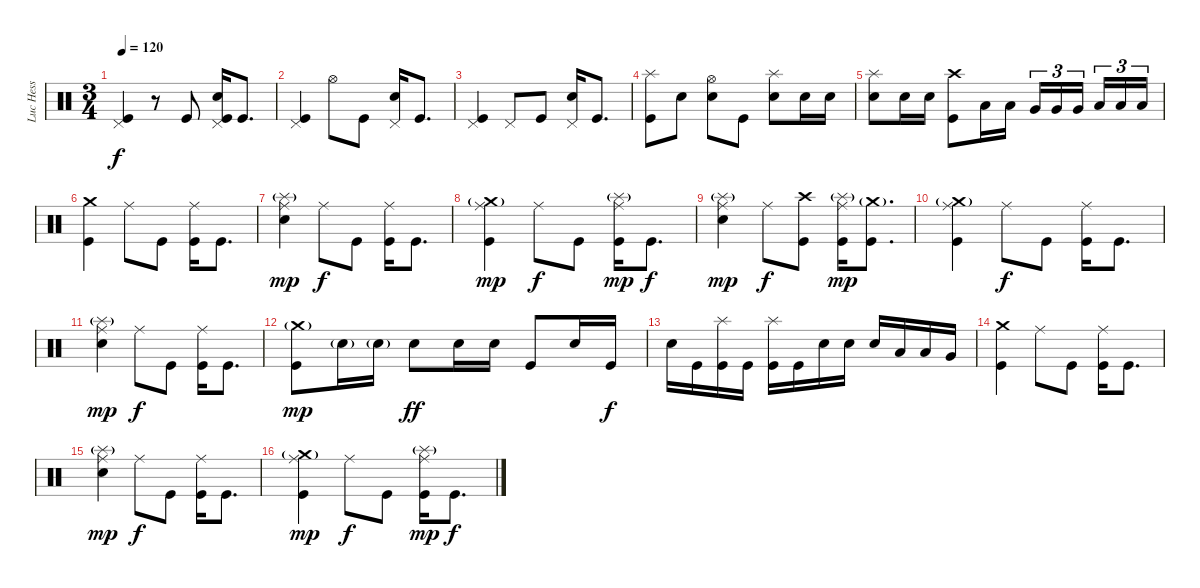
\track ("Luc Hess" "Luc Hess") {instrument percussion}
\staff {score}
\articulation defaults
\ts (3 4)
\tempo 120
\clef neutral
\ks c
("Pedal Hi-Hat (hit)" "Kick (hit)").4{dy f} r.8 "Kick (hit)".8 ("Snare (hit) 2" "Pedal Hi-Hat (hit)" "Kick (hit)").16 "Kick (hit)".8{d} |
("Pedal Hi-Hat (hit)" "Kick (hit)").4 "Hi-Hat (open)".8 "Kick (hit)".8 ("Snare (hit) 2" "Pedal Hi-Hat (hit)").16 "Kick (hit)".8{d} |
("Pedal Hi-Hat (hit)" "Kick (hit)").4 "Pedal Hi-Hat (hit)".8 "Kick (hit)".8 ("Snare (hit) 2" "Pedal Hi-Hat (hit)").16 "Kick (hit)".8{d} |
("Splash (hit)" "Kick (hit)").8 "Snare (hit) 2".8 ("Snare (hit) 2" "Hi-Hat (open)").8 "Kick (hit)".8 ("Snare (hit) 2" "Splash (hit)").8 "Snare (hit) 2".16 "Snare (hit) 2".16 |
("Snare (hit) 2" "Splash (hit)").8 "Snare (hit) 2".16 "Snare (hit) 2".16 ("Crash high (hit)" "Kick (hit)").8 "Low Tom (hit)".16 "Low Tom (hit)".16 "Very Low Tom (hit)".16{tu (3 2)} "Very Low Tom (hit)".16{tu (3 2)} "Very Low Tom (hit)".16{tu (3 2) beam splitsecondary} "Low Floor Tom (hit)".16{tu (3 2)} "Low Floor Tom (hit)".16{tu (3 2)} "Low Floor Tom (hit)".16{tu (3 2)} |
("Crash medium (hit)" "Kick (hit)").4 "Ride (middle)".8 "Kick (hit)".8 ("Ride (middle)" "Kick (hit)").16 "Kick (hit)".8{d} |
("Splash (hit)"{g} "Snare (hit) 2" "Ride (middle)").4{dy mp} "Ride (middle)".8{dy f} "Kick (hit)".8 ("Ride (middle)" "Kick (hit)").16 "Kick (hit)".8{d} |
("Crash medium (hit)"{g} "Ride (middle)" "Kick (hit)").4{dy mp} "Ride (middle)".8{dy f} "Kick (hit)".8 ("Splash (hit)"{g} "Ride (middle)" "Kick (hit)").16{dy mp} "Kick (hit)".8{d dy f} |
("Splash (hit)"{g} "Snare (hit) 2" "Ride (middle)").4{dy mp} "Ride (middle)".8{dy f} ("Crash high (hit)" "Kick (hit)").8 ("Splash (hit)"{g} "Ride (middle)" "Kick (hit)").16{dy mp} ("Crash medium (hit)"{g} "Kick (hit)").8{d} |
("Crash medium (hit)"{g} "Ride (middle)" "Kick (hit)").4 "Ride (middle)".8{dy f} "Kick (hit)".8 ("Ride (middle)" "Kick (hit)").16 "Kick (hit)".8{d} |
("Splash (hit)"{g} "Snare (hit) 2" "Ride (middle)").4{dy mp} "Ride (middle)".8{dy f} "Kick (hit)".8 ("Ride (middle)" "Kick (hit)").16 "Kick (hit)".8{d} |
("Crash medium (hit)"{g} "Kick (hit)").8{dy mp} "Snare (hit) 2"{g}.16 "Snare (hit) 2"{g}.16 "Snare (hit) 2".8{dy ff} "Snare (hit) 2".16 "Snare (hit) 2".16 "Kick (hit)".8 "Snare (hit) 2".16 "Kick (hit)".16{dy f} |
"Snare (hit) 2".16 "Kick (hit)".16 ("Splash (hit)" "Kick (hit)").16 "Kick (hit)".16 ("Splash (hit)" "Kick (hit)").16 "Kick (hit)".16 "Snare (hit) 2".16 "Snare (hit) 2".16 "Snare (hit) 2".16 "Low Tom (hit)".16 "Low Tom (hit)".16 "Very Low Tom (hit)".16 |
("Crash medium (hit)" "Kick (hit)").4 "Ride (middle)".8 "Kick (hit)".8 ("Ride (middle)" "Kick (hit)").16 "Kick (hit)".8{d} |
("Splash (hit)"{g} "Snare (hit) 2" "Ride (middle)").4{dy mp} "Ride (middle)".8{dy f} "Kick (hit)".8 ("Ride (middle)" "Kick (hit)").16 "Kick (hit)".8{d} |
("Crash medium (hit)"{g} "Ride (middle)" "Kick (hit)").4{dy mp} "Ride (middle)".8{dy f} "Kick (hit)".8 ("Splash (hit)"{g} "Ride (middle)" "Kick (hit)").16{dy mp} "Kick (hit)".8{d dy f}
